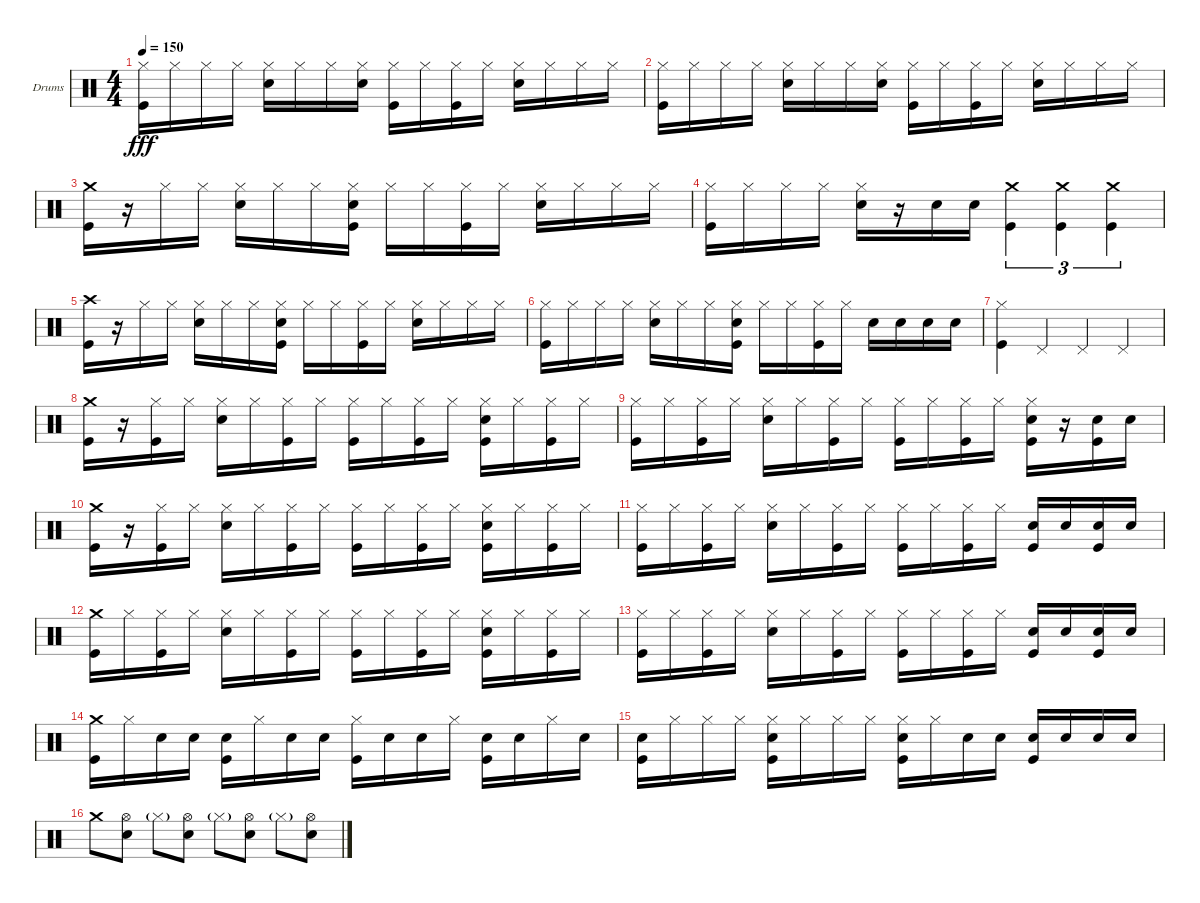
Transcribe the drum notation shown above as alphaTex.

\defaultSystemsLayout 4
\bracketExtendMode groupsimilarinstruments
\firstSystemTrackNameOrientation horizontal
\otherSystemsTrackNameOrientation horizontal
\track ("Matt Helders" "Drums") {instrument percussion}
\staff {score}
\articulation defaults
\ts (4 4)
\tempo 150
\clef neutral
\ks c
("Hi-Hat (closed)" "Kick (hit)").16{dy fff} "Hi-Hat (closed)".16 "Hi-Hat (closed)".16 "Hi-Hat (closed)".16 ("Hi-Hat (closed)" "Snare (hit) 2").16 "Hi-Hat (closed)".16 "Hi-Hat (closed)".16 ("Hi-Hat (closed)" "Snare (hit) 2").16 ("Hi-Hat (closed)" "Kick (hit)").16 "Hi-Hat (closed)".16 ("Hi-Hat (closed)" "Kick (hit)").16 "Hi-Hat (closed)".16 ("Hi-Hat (closed)" "Snare (hit) 2").16 "Hi-Hat (closed)".16 "Hi-Hat (closed)".16 "Hi-Hat (closed)".16 |
("Hi-Hat (closed)" "Kick (hit)").16 "Hi-Hat (closed)".16 "Hi-Hat (closed)".16 "Hi-Hat (closed)".16 ("Hi-Hat (closed)" "Snare (hit) 2").16 "Hi-Hat (closed)".16 "Hi-Hat (closed)".16 ("Hi-Hat (closed)" "Snare (hit) 2").16 ("Hi-Hat (closed)" "Kick (hit)").16 "Hi-Hat (closed)".16 ("Hi-Hat (closed)" "Kick (hit)").16 "Hi-Hat (closed)".16 ("Hi-Hat (closed)" "Snare (hit) 2").16 "Hi-Hat (closed)".16 "Hi-Hat (closed)".16 "Hi-Hat (closed)".16 |
("Crash medium (hit)" "Kick (hit)").16 r.16 "Hi-Hat (closed)".16 "Hi-Hat (closed)".16 ("Hi-Hat (closed)" "Snare (hit) 2").16 "Hi-Hat (closed)".16 "Hi-Hat (closed)".16 ("Hi-Hat (closed)" "Snare (hit) 2" "Kick (hit)").16 "Hi-Hat (closed)".16 "Hi-Hat (closed)".16 ("Hi-Hat (closed)" "Kick (hit)").16 "Hi-Hat (closed)".16 ("Hi-Hat (closed)" "Snare (hit) 2").16 "Hi-Hat (closed)".16 "Hi-Hat (closed)".16 "Hi-Hat (closed)".16 |
("Hi-Hat (closed)" "Kick (hit)").16 "Hi-Hat (closed)".16 "Hi-Hat (closed)".16 "Hi-Hat (closed)".16 ("Hi-Hat (closed)" "Snare (hit) 2").16 r.16 "Snare (hit) 2".16 "Snare (hit) 2".16 ("Kick (hit)" "Crash medium (hit)").4{tu (3 2)} ("Kick (hit)" "Crash medium (hit)").4{tu (3 2)} ("Kick (hit)" "Crash medium (hit)").4{tu (3 2)} |
("Crash high (hit)" "Kick (hit)").16 r.16 "Hi-Hat (closed)".16 "Hi-Hat (closed)".16 ("Hi-Hat (closed)" "Snare (hit) 2").16 "Hi-Hat (closed)".16 "Hi-Hat (closed)".16 ("Hi-Hat (closed)" "Snare (hit) 2" "Kick (hit)").16 "Hi-Hat (closed)".16 "Hi-Hat (closed)".16 ("Hi-Hat (closed)" "Kick (hit)").16 "Hi-Hat (closed)".16 ("Hi-Hat (closed)" "Snare (hit) 2").16 "Hi-Hat (closed)".16 "Hi-Hat (closed)".16 "Hi-Hat (closed)".16 |
("Hi-Hat (closed)" "Kick (hit)").16 "Hi-Hat (closed)".16 "Hi-Hat (closed)".16 "Hi-Hat (closed)".16 ("Hi-Hat (closed)" "Snare (hit) 2").16 "Hi-Hat (closed)".16 "Hi-Hat (closed)".16 ("Hi-Hat (closed)" "Snare (hit) 2" "Kick (hit)").16 "Hi-Hat (closed)".16 "Hi-Hat (closed)".16 ("Hi-Hat (closed)" "Kick (hit)").16 "Hi-Hat (closed)".16 "Snare (hit) 2".16 "Snare (hit) 2".16 "Snare (hit) 2".16 "Snare (hit) 2".16 |
("Kick (hit)" "Hi-Hat (closed)").4 "Pedal Hi-Hat (hit)".4 "Pedal Hi-Hat (hit)".4 "Pedal Hi-Hat (hit)".4 |
("Crash medium (hit)" "Kick (hit)").16 r.16 ("Hi-Hat (closed)" "Kick (hit)").16 "Hi-Hat (closed)".16 ("Hi-Hat (closed)" "Snare (hit) 2").16 "Hi-Hat (closed)".16 ("Hi-Hat (closed)" "Kick (hit)").16 "Hi-Hat (closed)".16 ("Hi-Hat (closed)" "Kick (hit)").16 "Hi-Hat (closed)".16 ("Hi-Hat (closed)" "Kick (hit)").16 "Hi-Hat (closed)".16 ("Hi-Hat (closed)" "Snare (hit) 2" "Kick (hit)").16 "Hi-Hat (closed)".16 ("Hi-Hat (closed)" "Kick (hit)").16 "Hi-Hat (closed)".16 |
("Hi-Hat (closed)" "Kick (hit)").16 "Hi-Hat (closed)".16 ("Hi-Hat (closed)" "Kick (hit)").16 "Hi-Hat (closed)".16 ("Hi-Hat (closed)" "Snare (hit) 2").16 "Hi-Hat (closed)".16 ("Hi-Hat (closed)" "Kick (hit)").16 "Hi-Hat (closed)".16 ("Hi-Hat (closed)" "Kick (hit)").16 "Hi-Hat (closed)".16 ("Hi-Hat (closed)" "Kick (hit)").16 "Hi-Hat (closed)".16 ("Hi-Hat (closed)" "Snare (hit) 2" "Kick (hit)").16 r.16 ("Snare (hit) 2" "Kick (hit)").16 "Snare (hit) 2".16 |
("Crash medium (hit)" "Kick (hit)").16 r.16 ("Hi-Hat (closed)" "Kick (hit)").16 "Hi-Hat (closed)".16 ("Hi-Hat (closed)" "Snare (hit) 2").16 "Hi-Hat (closed)".16 ("Hi-Hat (closed)" "Kick (hit)").16 "Hi-Hat (closed)".16 ("Hi-Hat (closed)" "Kick (hit)").16 "Hi-Hat (closed)".16 ("Hi-Hat (closed)" "Kick (hit)").16 "Hi-Hat (closed)".16 ("Hi-Hat (closed)" "Snare (hit) 2" "Kick (hit)").16 "Hi-Hat (closed)".16 ("Hi-Hat (closed)" "Kick (hit)").16 "Hi-Hat (closed)".16 |
("Hi-Hat (closed)" "Kick (hit)").16 "Hi-Hat (closed)".16 ("Hi-Hat (closed)" "Kick (hit)").16 "Hi-Hat (closed)".16 ("Hi-Hat (closed)" "Snare (hit) 2").16 "Hi-Hat (closed)".16 ("Hi-Hat (closed)" "Kick (hit)").16 "Hi-Hat (closed)".16 ("Hi-Hat (closed)" "Kick (hit)").16 "Hi-Hat (closed)".16 ("Hi-Hat (closed)" "Kick (hit)").16 "Hi-Hat (closed)".16 ("Snare (hit) 2" "Kick (hit)").16 "Snare (hit) 2".16 ("Snare (hit) 2" "Kick (hit)").16 "Snare (hit) 2".16 |
("Crash medium (hit)" "Kick (hit)").16 "Hi-Hat (closed)".16 ("Hi-Hat (closed)" "Kick (hit)").16 "Hi-Hat (closed)".16 ("Hi-Hat (closed)" "Snare (hit) 2").16 "Hi-Hat (closed)".16 ("Hi-Hat (closed)" "Kick (hit)").16 "Hi-Hat (closed)".16 ("Hi-Hat (closed)" "Kick (hit)").16 "Hi-Hat (closed)".16 ("Hi-Hat (closed)" "Kick (hit)").16 "Hi-Hat (closed)".16 ("Hi-Hat (closed)" "Snare (hit) 2" "Kick (hit)").16 "Hi-Hat (closed)".16 ("Hi-Hat (closed)" "Kick (hit)").16 "Hi-Hat (closed)".16 |
("Hi-Hat (closed)" "Kick (hit)").16 "Hi-Hat (closed)".16 ("Hi-Hat (closed)" "Kick (hit)").16 "Hi-Hat (closed)".16 ("Hi-Hat (closed)" "Snare (hit) 2").16 "Hi-Hat (closed)".16 ("Hi-Hat (closed)" "Kick (hit)").16 "Hi-Hat (closed)".16 ("Hi-Hat (closed)" "Kick (hit)").16 "Hi-Hat (closed)".16 ("Hi-Hat (closed)" "Kick (hit)").16 "Hi-Hat (closed)".16 ("Snare (hit) 2" "Kick (hit)").16 "Snare (hit) 2".16 ("Snare (hit) 2" "Kick (hit)").16 "Snare (hit) 2".16 |
("Crash medium (hit)" "Kick (hit)").16 "Hi-Hat (closed)".16 "Snare (hit) 2".16 "Snare (hit) 2".16 ("Snare (hit) 2" "Kick (hit)").16 "Hi-Hat (closed)".16 "Snare (hit) 2".16 "Snare (hit) 2".16 ("Hi-Hat (closed)" "Kick (hit)").16 "Snare (hit) 2".16 "Snare (hit) 2".16 "Hi-Hat (closed)".16 ("Snare (hit) 2" "Kick (hit)").16 "Snare (hit) 2".16 "Hi-Hat (closed)".16 "Snare (hit) 2".16 |
("Snare (hit) 2" "Kick (hit)").16 "Hi-Hat (closed)".16 "Hi-Hat (closed)".16 "Hi-Hat (closed)".16 ("Hi-Hat (closed)" "Snare (hit) 2" "Kick (hit)").16 "Hi-Hat (closed)".16 "Hi-Hat (closed)".16 "Hi-Hat (closed)".16 ("Hi-Hat (closed)" "Snare (hit) 2" "Kick (hit)").16 "Hi-Hat (closed)".16 "Snare (hit) 2".16 "Snare (hit) 2".16 ("Snare (hit) 2" "Kick (hit)").16 "Snare (hit) 2".16 "Snare (hit) 2".16 "Snare (hit) 2".16 |
"Crash medium (hit)".8 ("Hi-Hat (open)" "Snare (hit) 2").8 "Hi-Hat (closed)"{g}.8 ("Hi-Hat (open)" "Snare (hit) 2").8 "Hi-Hat (closed)"{g}.8 ("Hi-Hat (open)" "Snare (hit) 2").8 "Hi-Hat (closed)"{g}.8 ("Hi-Hat (open)" "Snare (hit) 2").8
